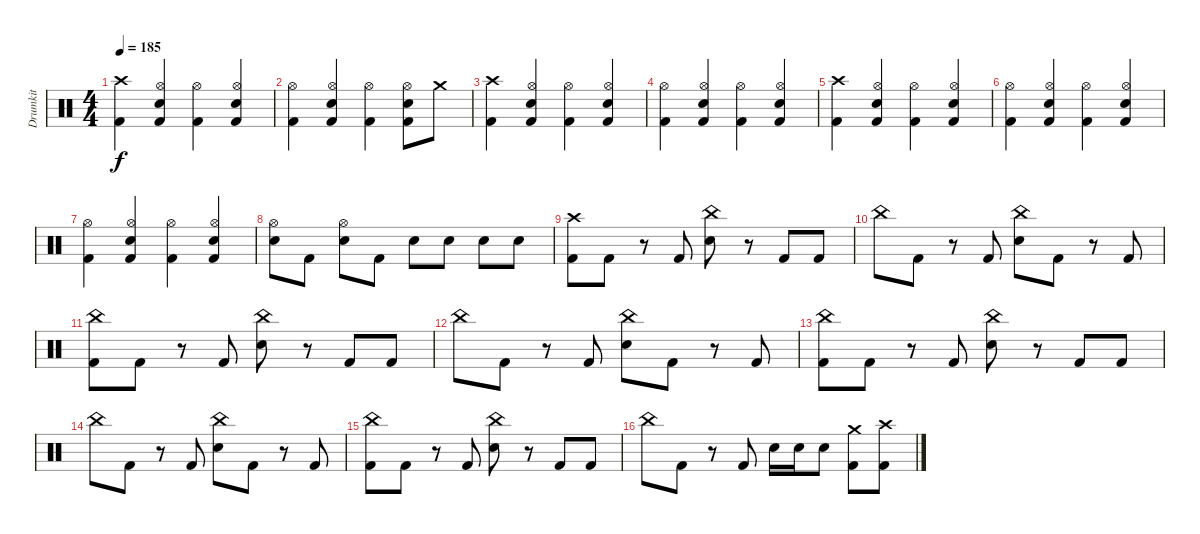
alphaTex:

\track ("Drumkit" "Drumkit") {instrument percussion}
\staff {score}
\articulation defaults
\ts (4 4)
\tempo 185
\clef neutral
\ks c
("Crash high (hit)" "Kick (hit) 2").4{dy f} ("Hi-Hat (open)" "Electric Snare (hit)" "Kick (hit) 2").4 ("Hi-Hat (open)" "Kick (hit) 2").4 ("Hi-Hat (open)" "Electric Snare (hit)" "Kick (hit) 2").4 |
("Hi-Hat (open)" "Kick (hit) 2").4 ("Hi-Hat (open)" "Electric Snare (hit)" "Kick (hit) 2").4 ("Hi-Hat (open)" "Kick (hit) 2").4 ("Hi-Hat (open)" "Electric Snare (hit)" "Kick (hit) 2").8 "Crash medium (hit)".8 |
("Crash high (hit)" "Kick (hit) 2").4 ("Hi-Hat (open)" "Electric Snare (hit)" "Kick (hit) 2").4 ("Hi-Hat (open)" "Kick (hit) 2").4 ("Hi-Hat (open)" "Electric Snare (hit)" "Kick (hit) 2").4 |
("Hi-Hat (open)" "Kick (hit) 2").4 ("Hi-Hat (open)" "Electric Snare (hit)" "Kick (hit) 2").4 ("Hi-Hat (open)" "Kick (hit) 2").4 ("Hi-Hat (open)" "Electric Snare (hit)" "Kick (hit) 2").4 |
("Crash high (hit)" "Kick (hit) 2").4 ("Hi-Hat (open)" "Electric Snare (hit)" "Kick (hit) 2").4 ("Hi-Hat (open)" "Kick (hit) 2").4 ("Hi-Hat (open)" "Electric Snare (hit)" "Kick (hit) 2").4 |
("Hi-Hat (open)" "Kick (hit) 2").4 ("Hi-Hat (open)" "Electric Snare (hit)" "Kick (hit) 2").4 ("Hi-Hat (open)" "Kick (hit) 2").4 ("Hi-Hat (open)" "Electric Snare (hit)" "Kick (hit) 2").4 |
("Hi-Hat (open)" "Kick (hit) 2").4 ("Hi-Hat (open)" "Electric Snare (hit)" "Kick (hit) 2").4 ("Hi-Hat (open)" "Kick (hit) 2").4 ("Hi-Hat (open)" "Electric Snare (hit)" "Kick (hit) 2").4 |
("Hi-Hat (open)" "Electric Snare (hit)").8 "Kick (hit) 2".8 ("Hi-Hat (open)" "Electric Snare (hit)").8 "Kick (hit) 2".8 "Electric Snare (hit)".8 "Electric Snare (hit)".8 "Electric Snare (hit)".8 "Electric Snare (hit)".8 |
("Crash high (hit)" "Kick (hit) 2").8 "Kick (hit) 2".8 r.8 "Kick (hit) 2".8 ("China (hit)" "Electric Snare (hit)").8 r.8 "Kick (hit) 2".8 "Kick (hit) 2".8 |
"China (hit)".8 "Kick (hit) 2".8 r.8 "Kick (hit) 2".8 ("China (hit)" "Electric Snare (hit)").8 "Kick (hit) 2".8 r.8 "Kick (hit) 2".8 |
("China (hit)" "Kick (hit) 2").8 "Kick (hit) 2".8 r.8 "Kick (hit) 2".8 ("China (hit)" "Electric Snare (hit)").8 r.8 "Kick (hit) 2".8 "Kick (hit) 2".8 |
"China (hit)".8 "Kick (hit) 2".8 r.8 "Kick (hit) 2".8 ("China (hit)" "Electric Snare (hit)").8 "Kick (hit) 2".8 r.8 "Kick (hit) 2".8 |
("China (hit)" "Kick (hit) 2").8 "Kick (hit) 2".8 r.8 "Kick (hit) 2".8 ("China (hit)" "Electric Snare (hit)").8 r.8 "Kick (hit) 2".8 "Kick (hit) 2".8 |
"China (hit)".8 "Kick (hit) 2".8 r.8 "Kick (hit) 2".8 ("China (hit)" "Electric Snare (hit)").8 "Kick (hit) 2".8 r.8 "Kick (hit) 2".8 |
("China (hit)" "Kick (hit) 2").8 "Kick (hit) 2".8 r.8 "Kick (hit) 2".8 ("China (hit)" "Electric Snare (hit)").8 r.8 "Kick (hit) 2".8 "Kick (hit) 2".8 |
"China (hit)".8 "Kick (hit) 2".8 r.8 "Kick (hit) 2".8 "Electric Snare (hit)".16 "Electric Snare (hit)".16 "Electric Snare (hit)".8 ("Crash medium (hit)" "Kick (hit) 2").8 ("Crash high (hit)" "Kick (hit) 2").8
